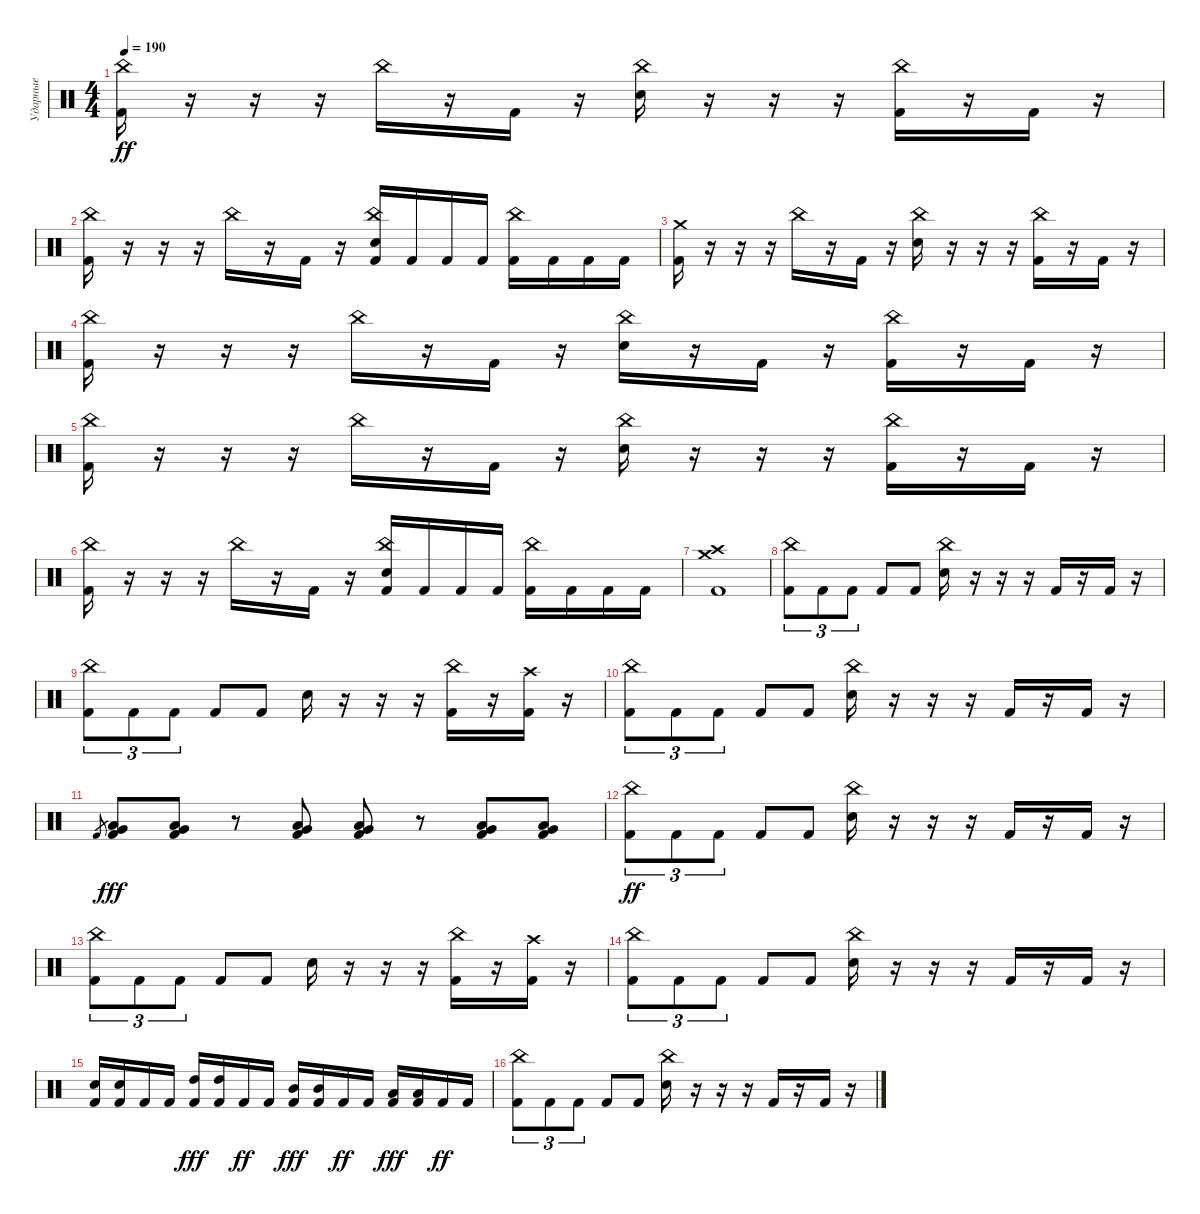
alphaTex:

\track ("Ударные" "Ударные") {instrument percussion}
\staff {score}
\articulation defaults
\ts (4 4)
\tempo 190
\clef neutral
\ks c
("Kick (hit) 2" "China (hit)").16{dy ff} r.16 r.16 r.16 "China (hit)".16 r.16 "Kick (hit) 2".16 r.16 ("Snare (hit) 2" "China (hit)").16 r.16 r.16 r.16 ("Kick (hit) 2" "China (hit)").16 r.16 "Kick (hit) 2".16 r.16 |
("Kick (hit) 2" "China (hit)").16 r.16 r.16 r.16 "China (hit)".16 r.16 "Kick (hit) 2".16 r.16 ("Snare (hit) 2" "Kick (hit) 2" "China (hit)").16 "Kick (hit) 2".16 "Kick (hit) 2".16 "Kick (hit) 2".16 ("China (hit)" "Kick (hit) 2").16 "Kick (hit) 2".16 "Kick (hit) 2".16 "Kick (hit) 2".16 |
("Kick (hit) 2" "Crash medium (hit)").16 r.16 r.16 r.16 "China (hit)".16 r.16 "Kick (hit) 2".16 r.16 ("Snare (hit) 2" "China (hit)").16 r.16 r.16 r.16 ("Kick (hit) 2" "China (hit)").16 r.16 "Kick (hit) 2".16 r.16 |
("Kick (hit) 2" "China (hit)").16 r.16 r.16 r.16 "China (hit)".16 r.16 "Kick (hit) 2".16 r.16 ("Snare (hit) 2" "China (hit)").16 r.16 "Kick (hit) 2".16 r.16 ("Kick (hit) 2" "China (hit)").16 r.16 "Kick (hit) 2".16 r.16 |
("Kick (hit) 2" "China (hit)").16 r.16 r.16 r.16 "China (hit)".16 r.16 "Kick (hit) 2".16 r.16 ("Snare (hit) 2" "China (hit)").16 r.16 r.16 r.16 ("Kick (hit) 2" "China (hit)").16 r.16 "Kick (hit) 2".16 r.16 |
("Kick (hit) 2" "China (hit)").16 r.16 r.16 r.16 "China (hit)".16 r.16 "Kick (hit) 2".16 r.16 ("Snare (hit) 2" "Kick (hit) 2" "China (hit)").16 "Kick (hit) 2".16 "Kick (hit) 2".16 "Kick (hit) 2".16 ("China (hit)" "Kick (hit) 2").16 "Kick (hit) 2".16 "Kick (hit) 2".16 "Kick (hit) 2".16 |
("Kick (hit) 2" "Crash medium (hit)" "Crash high (hit)").1 |
("Kick (hit) 2" "China (hit)").8{tu (3 2)} "Kick (hit) 2".8{tu (3 2)} "Kick (hit) 2".8{tu (3 2)} "Kick (hit) 2".8 "Kick (hit) 2".8 ("Snare (hit) 2" "China (hit)").16 r.16 r.16 r.16 "Kick (hit) 2".16 r.16 "Kick (hit) 2".16 r.16 |
("Kick (hit) 2" "China (hit)").8{tu (3 2)} "Kick (hit) 2".8{tu (3 2)} "Kick (hit) 2".8{tu (3 2)} "Kick (hit) 2".8 "Kick (hit) 2".8 "Snare (hit) 2".16 r.16 r.16 r.16 ("Kick (hit) 2" "China (hit)").16 r.16 ("Kick (hit) 2" "Crash high (hit)").16 r.16 |
("Kick (hit) 2" "China (hit)").8{tu (3 2)} "Kick (hit) 2".8{tu (3 2)} "Kick (hit) 2".8{tu (3 2)} "Kick (hit) 2".8 "Kick (hit) 2".8 ("Snare (hit) 2" "China (hit)").16 r.16 r.16 r.16 "Kick (hit) 2".16 r.16 "Kick (hit) 2".16 r.16 |
"Kick (hit) 2".8{gr} ("Kick (hit) 2" "Low Tom (hit)" "Very Low Tom (hit)").8{dy fff} ("Kick (hit) 2" "Low Tom (hit)" "Very Low Tom (hit)").8 r.8 ("Kick (hit) 2" "Low Tom (hit)" "Very Low Tom (hit)").8 ("Kick (hit) 2" "Low Tom (hit)" "Very Low Tom (hit)").8 r.8 ("Kick (hit) 2" "Low Tom (hit)" "Very Low Tom (hit)").8 ("Kick (hit) 2" "Low Tom (hit)" "Very Low Tom (hit)").8 |
("Kick (hit) 2" "China (hit)").8{tu (3 2) dy ff} "Kick (hit) 2".8{tu (3 2)} "Kick (hit) 2".8{tu (3 2)} "Kick (hit) 2".8 "Kick (hit) 2".8 ("Snare (hit) 2" "China (hit)").16 r.16 r.16 r.16 "Kick (hit) 2".16 r.16 "Kick (hit) 2".16 r.16 |
("Kick (hit) 2" "China (hit)").8{tu (3 2)} "Kick (hit) 2".8{tu (3 2)} "Kick (hit) 2".8{tu (3 2)} "Kick (hit) 2".8 "Kick (hit) 2".8 "Snare (hit) 2".16 r.16 r.16 r.16 ("Kick (hit) 2" "China (hit)").16 r.16 ("Kick (hit) 2" "Crash high (hit)").16 r.16 |
("Kick (hit) 2" "China (hit)").8{tu (3 2)} "Kick (hit) 2".8{tu (3 2)} "Kick (hit) 2".8{tu (3 2)} "Kick (hit) 2".8 "Kick (hit) 2".8 ("Snare (hit) 2" "China (hit)").16 r.16 r.16 r.16 "Kick (hit) 2".16 r.16 "Kick (hit) 2".16 r.16 |
("Kick (hit) 2" "Snare (hit) 2").16 ("Kick (hit) 2" "Snare (hit) 2").16 "Kick (hit) 2".16 "Kick (hit) 2".16 ("Kick (hit) 2" "High Tom (hit)").16{dy fff} ("Kick (hit) 2" "High Tom (hit)").16 "Kick (hit) 2".16{dy ff} "Kick (hit) 2".16 ("Kick (hit) 2" "Mid Tom (hit)").16{dy fff} ("Kick (hit) 2" "Mid Tom (hit)").16 "Kick (hit) 2".16{dy ff} "Kick (hit) 2".16 ("Kick (hit) 2" "Low Tom (hit)").16{dy fff} ("Kick (hit) 2" "Low Tom (hit)").16 "Kick (hit) 2".16{dy ff} "Kick (hit) 2".16 |
("Kick (hit) 2" "China (hit)").8{tu (3 2)} "Kick (hit) 2".8{tu (3 2)} "Kick (hit) 2".8{tu (3 2)} "Kick (hit) 2".8 "Kick (hit) 2".8 ("Snare (hit) 2" "China (hit)").16 r.16 r.16 r.16 "Kick (hit) 2".16 r.16 "Kick (hit) 2".16 r.16
